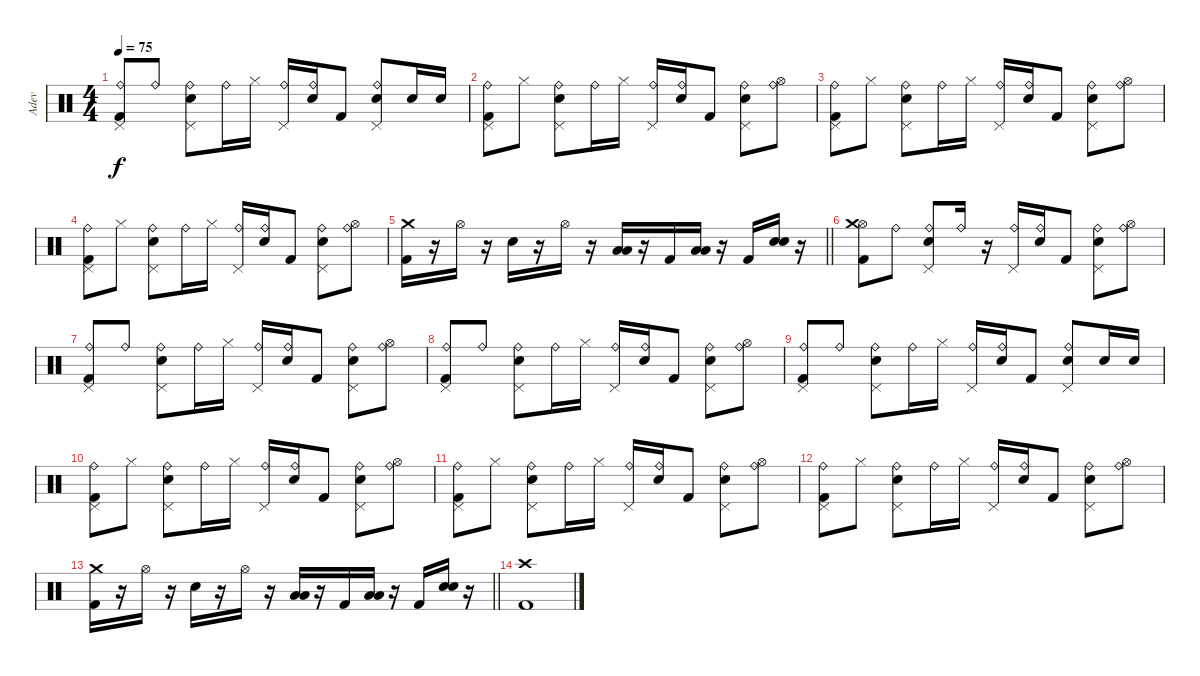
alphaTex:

\track ("Adev" "Adev") {instrument percussion}
\staff {score}
\articulation defaults
\ts (4 4)
\tempo 75
\clef neutral
\ks c
("Pedal Hi-Hat (hit)" "Ride (bell)" "Kick (hit) 2").8{dy f} "Ride (bell)".8 ("Pedal Hi-Hat (hit)" "Ride (bell)" "Electric Snare (hit)").8 "Ride (bell)".16 "Hi-Hat (closed)".16 ("Pedal Hi-Hat (hit)" "Ride (bell)").16 ("Ride (bell)" "Electric Snare (hit)").16 "Kick (hit) 2".8 ("Pedal Hi-Hat (hit)" "Ride (bell)" "Electric Snare (hit)").8 "Electric Snare (hit)".16 "Electric Snare (hit)".16 |
("Pedal Hi-Hat (hit)" "Ride (bell)" "Kick (hit) 2").8 "Hi-Hat (closed)".8 ("Pedal Hi-Hat (hit)" "Ride (bell)" "Electric Snare (hit)").8 "Ride (bell)".16 "Hi-Hat (closed)".16 ("Pedal Hi-Hat (hit)" "Ride (bell)").16 ("Ride (bell)" "Electric Snare (hit)").16 "Kick (hit) 2".8 ("Pedal Hi-Hat (hit)" "Ride (bell)" "Electric Snare (hit)").8 ("Ride (bell)" "Hi-Hat (open)").8 |
("Pedal Hi-Hat (hit)" "Ride (bell)" "Kick (hit) 2").8 "Hi-Hat (closed)".8 ("Pedal Hi-Hat (hit)" "Ride (bell)" "Electric Snare (hit)").8 "Ride (bell)".16 "Hi-Hat (closed)".16 ("Pedal Hi-Hat (hit)" "Ride (bell)").16 ("Ride (bell)" "Electric Snare (hit)").16 "Kick (hit) 2".8 ("Pedal Hi-Hat (hit)" "Ride (bell)" "Electric Snare (hit)").8 ("Ride (bell)" "Hi-Hat (open)").8 |
("Pedal Hi-Hat (hit)" "Ride (bell)" "Kick (hit) 2").8 "Hi-Hat (closed)".8 ("Pedal Hi-Hat (hit)" "Ride (bell)" "Electric Snare (hit)").8 "Ride (bell)".16 "Hi-Hat (closed)".16 ("Pedal Hi-Hat (hit)" "Ride (bell)").16 ("Ride (bell)" "Electric Snare (hit)").16 "Kick (hit) 2".8 ("Pedal Hi-Hat (hit)" "Ride (bell)" "Electric Snare (hit)").8 ("Ride (bell)" "Hi-Hat (open)").8 |
\barLineRight lightlight
("Crash medium (hit)" "Kick (hit) 2").16 r.16 "Hi-Hat (open)".16 r.16 "Electric Snare (hit)".16 r.16 "Hi-Hat (open)".16 r.16 ("Low Tom (hit)" "Low Tom (hit)").16{bu 120} r.16 "Kick (hit) 2".16 ("Low Floor Tom (hit)" "Low Floor Tom (hit)").16{bu 120} r.16 "Kick (hit) 2".16 ("Electric Snare (hit)" "Electric Snare (hit)").16{bu 120} r.16 |
("Hi-Hat (open)" "Crash medium (hit)" "Kick (hit) 2").8 "Ride (bell)".8 ("Pedal Hi-Hat (hit)" "Ride (bell)" "Electric Snare (hit)").8 "Ride (bell)".16 r.16 ("Pedal Hi-Hat (hit)" "Ride (bell)").16 ("Ride (bell)" "Electric Snare (hit)").16 "Kick (hit) 2".8 ("Pedal Hi-Hat (hit)" "Ride (bell)" "Electric Snare (hit)").8 ("Hi-Hat (open)" "Ride (bell)").8 |
("Pedal Hi-Hat (hit)" "Ride (bell)" "Kick (hit) 2").8 "Ride (bell)".8 ("Pedal Hi-Hat (hit)" "Ride (bell)" "Electric Snare (hit)").8 "Ride (bell)".16 "Hi-Hat (closed)".16 ("Pedal Hi-Hat (hit)" "Ride (bell)").16 ("Ride (bell)" "Electric Snare (hit)").16 "Kick (hit) 2".8 ("Pedal Hi-Hat (hit)" "Ride (bell)" "Electric Snare (hit)").8 ("Ride (bell)" "Hi-Hat (open)").8 |
("Pedal Hi-Hat (hit)" "Ride (bell)" "Kick (hit) 2").8 "Ride (bell)".8 ("Pedal Hi-Hat (hit)" "Ride (bell)" "Electric Snare (hit)").8 "Ride (bell)".16 "Hi-Hat (closed)".16 ("Pedal Hi-Hat (hit)" "Ride (bell)").16 ("Ride (bell)" "Electric Snare (hit)").16 "Kick (hit) 2".8 ("Pedal Hi-Hat (hit)" "Ride (bell)" "Electric Snare (hit)").8 ("Ride (bell)" "Hi-Hat (open)").8 |
("Pedal Hi-Hat (hit)" "Ride (bell)" "Kick (hit) 2").8 "Ride (bell)".8 ("Pedal Hi-Hat (hit)" "Ride (bell)" "Electric Snare (hit)").8 "Ride (bell)".16 "Hi-Hat (closed)".16 ("Pedal Hi-Hat (hit)" "Ride (bell)").16 ("Ride (bell)" "Electric Snare (hit)").16 "Kick (hit) 2".8 ("Pedal Hi-Hat (hit)" "Ride (bell)" "Electric Snare (hit)").8 "Electric Snare (hit)".16 "Electric Snare (hit)".16 |
("Pedal Hi-Hat (hit)" "Ride (bell)" "Kick (hit) 2").8 "Hi-Hat (closed)".8 ("Pedal Hi-Hat (hit)" "Ride (bell)" "Electric Snare (hit)").8 "Ride (bell)".16 "Hi-Hat (closed)".16 ("Pedal Hi-Hat (hit)" "Ride (bell)").16 ("Ride (bell)" "Electric Snare (hit)").16 "Kick (hit) 2".8 ("Pedal Hi-Hat (hit)" "Ride (bell)" "Electric Snare (hit)").8 ("Ride (bell)" "Hi-Hat (open)").8 |
("Pedal Hi-Hat (hit)" "Ride (bell)" "Kick (hit) 2").8 "Hi-Hat (closed)".8 ("Pedal Hi-Hat (hit)" "Ride (bell)" "Electric Snare (hit)").8 "Ride (bell)".16 "Hi-Hat (closed)".16 ("Pedal Hi-Hat (hit)" "Ride (bell)").16 ("Ride (bell)" "Electric Snare (hit)").16 "Kick (hit) 2".8 ("Pedal Hi-Hat (hit)" "Ride (bell)" "Electric Snare (hit)").8 ("Ride (bell)" "Hi-Hat (open)").8 |
("Pedal Hi-Hat (hit)" "Ride (bell)" "Kick (hit) 2").8 "Hi-Hat (closed)".8 ("Pedal Hi-Hat (hit)" "Ride (bell)" "Electric Snare (hit)").8 "Ride (bell)".16 "Hi-Hat (closed)".16 ("Pedal Hi-Hat (hit)" "Ride (bell)").16 ("Ride (bell)" "Electric Snare (hit)").16 "Kick (hit) 2".8 ("Pedal Hi-Hat (hit)" "Ride (bell)" "Electric Snare (hit)").8 ("Ride (bell)" "Hi-Hat (open)").8 |
\barLineRight lightlight
("Crash medium (hit)" "Kick (hit) 2").16 r.16 "Hi-Hat (open)".16 r.16 "Electric Snare (hit)".16 r.16 "Hi-Hat (open)".16 r.16 ("Low Tom (hit)" "Low Tom (hit)").16{bu 120} r.16 "Kick (hit) 2".16 ("Low Floor Tom (hit)" "Low Floor Tom (hit)").16{bu 120} r.16 "Kick (hit) 2".16 ("Electric Snare (hit)" "Electric Snare (hit)").16{bu 120} r.16 |
("Crash high (hit)" "Kick (hit) 2").1
